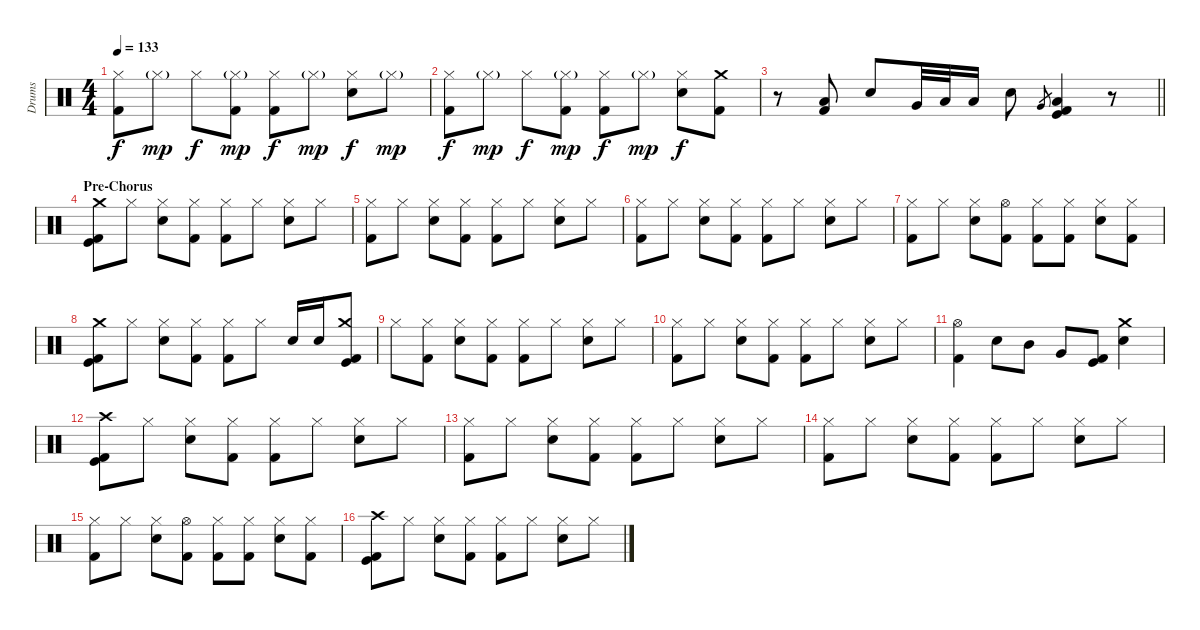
\track ("Drums" "Drums") {instrument percussion}
\staff {score}
\articulation defaults
\ts (4 4)
\tempo 133
\clef neutral
\ks c
("Hi-Hat (closed)" "Kick (hit) 2").8{dy f} "Hi-Hat (closed)"{g}.8{dy mp} "Hi-Hat (closed)".8{dy f} ("Hi-Hat (closed)"{g} "Kick (hit) 2").8{dy mp} ("Hi-Hat (closed)" "Kick (hit) 2").8{dy f} "Hi-Hat (closed)"{g}.8{dy mp} ("Hi-Hat (closed)" "Electric Snare (hit)").8{dy f} "Hi-Hat (closed)"{g}.8{dy mp} |
("Hi-Hat (closed)" "Kick (hit) 2").8{dy f} "Hi-Hat (closed)"{g}.8{dy mp} "Hi-Hat (closed)".8{dy f} ("Hi-Hat (closed)"{g} "Kick (hit) 2").8{dy mp} ("Hi-Hat (closed)" "Kick (hit) 2").8{dy f} "Hi-Hat (closed)"{g}.8{dy mp} ("Hi-Hat (closed)" "Electric Snare (hit)").8{dy f} ("Crash medium (hit)" "Kick (hit) 2").8 |
\barLineRight lightlight
r.8 ("Low Tom (hit)" "Kick (hit) 2").8 "Electric Snare (hit)".8 "Very Low Tom (hit)".32 "Low Tom (hit)".32 "Low Floor Tom (hit)".16 "Electric Snare (hit)".8 "Very Low Tom (hit)".8{gr} ("Low Floor Tom (hit)" "Kick (hit)" "Kick (hit) 2").4{volume 10} r.8 |
\section ("" "Pre-Chorus")
("Crash medium (hit)" "Kick (hit) 2" "Kick (hit)").8 "Hi-Hat (closed)".8 ("Hi-Hat (closed)" "Electric Snare (hit)").8 ("Hi-Hat (closed)" "Kick (hit) 2").8 ("Hi-Hat (closed)" "Kick (hit) 2").8 "Hi-Hat (closed)".8 ("Hi-Hat (closed)" "Electric Snare (hit)").8 "Hi-Hat (closed)".8 |
("Hi-Hat (closed)" "Kick (hit) 2").8 "Hi-Hat (closed)".8 ("Hi-Hat (closed)" "Electric Snare (hit)").8 ("Hi-Hat (closed)" "Kick (hit) 2").8 ("Hi-Hat (closed)" "Kick (hit) 2").8 "Hi-Hat (closed)".8 ("Hi-Hat (closed)" "Electric Snare (hit)").8 "Hi-Hat (closed)".8 |
("Hi-Hat (closed)" "Kick (hit) 2").8 "Hi-Hat (closed)".8 ("Hi-Hat (closed)" "Electric Snare (hit)").8 ("Hi-Hat (closed)" "Kick (hit) 2").8 ("Hi-Hat (closed)" "Kick (hit) 2").8 "Hi-Hat (closed)".8 ("Hi-Hat (closed)" "Electric Snare (hit)").8 "Hi-Hat (closed)".8 |
("Hi-Hat (closed)" "Kick (hit) 2").8 "Hi-Hat (closed)".8 ("Hi-Hat (closed)" "Electric Snare (hit)").8 ("Hi-Hat (open)" "Kick (hit) 2").8 ("Hi-Hat (closed)" "Kick (hit) 2").8 ("Hi-Hat (closed)" "Kick (hit) 2").8 ("Hi-Hat (closed)" "Electric Snare (hit)").8 ("Hi-Hat (closed)" "Kick (hit) 2").8 |
("Crash medium (hit)" "Kick (hit) 2" "Kick (hit)").8 "Hi-Hat (closed)".8 ("Hi-Hat (closed)" "Electric Snare (hit)").8 ("Hi-Hat (closed)" "Kick (hit) 2").8 ("Hi-Hat (closed)" "Kick (hit) 2").8 "Hi-Hat (closed)".8 "Electric Snare (hit)".16 "Electric Snare (hit)".16 ("Crash medium (hit)" "Kick (hit) 2" "Kick (hit)").8 |
"Hi-Hat (closed)".8 ("Hi-Hat (closed)" "Kick (hit) 2").8 ("Hi-Hat (closed)" "Electric Snare (hit)").8 ("Hi-Hat (closed)" "Kick (hit) 2").8 ("Hi-Hat (closed)" "Kick (hit) 2").8 "Hi-Hat (closed)".8 ("Hi-Hat (closed)" "Electric Snare (hit)").8 "Hi-Hat (closed)".8 |
("Hi-Hat (closed)" "Kick (hit) 2").8 "Hi-Hat (closed)".8 ("Hi-Hat (closed)" "Electric Snare (hit)").8 ("Hi-Hat (closed)" "Kick (hit) 2").8 ("Hi-Hat (closed)" "Kick (hit) 2").8 "Hi-Hat (closed)".8 ("Hi-Hat (closed)" "Electric Snare (hit)").8 "Hi-Hat (closed)".8 |
("Hi-Hat (open)" "Kick (hit) 2").4 "Electric Snare (hit)".8 "Mid Tom (hit)".8 "Very Low Tom (hit)".8 ("Kick (hit) 2" "Kick (hit)").8 ("Crash medium (hit)" "Electric Snare (hit)").4 |
("Crash high (hit)" "Kick (hit) 2" "Kick (hit)").8 "Hi-Hat (closed)".8 ("Hi-Hat (closed)" "Electric Snare (hit)").8 ("Hi-Hat (closed)" "Kick (hit) 2").8 ("Hi-Hat (closed)" "Kick (hit) 2").8 "Hi-Hat (closed)".8 ("Hi-Hat (closed)" "Electric Snare (hit)").8 "Hi-Hat (closed)".8 |
("Hi-Hat (closed)" "Kick (hit) 2").8 "Hi-Hat (closed)".8 ("Hi-Hat (closed)" "Electric Snare (hit)").8 ("Hi-Hat (closed)" "Kick (hit) 2").8 ("Hi-Hat (closed)" "Kick (hit) 2").8 "Hi-Hat (closed)".8 ("Hi-Hat (closed)" "Electric Snare (hit)").8 "Hi-Hat (closed)".8 |
("Hi-Hat (closed)" "Kick (hit) 2").8 "Hi-Hat (closed)".8 ("Hi-Hat (closed)" "Electric Snare (hit)").8 ("Hi-Hat (closed)" "Kick (hit) 2").8 ("Hi-Hat (closed)" "Kick (hit) 2").8 "Hi-Hat (closed)".8 ("Hi-Hat (closed)" "Electric Snare (hit)").8 "Hi-Hat (closed)".8 |
("Hi-Hat (closed)" "Kick (hit) 2").8 "Hi-Hat (closed)".8 ("Hi-Hat (closed)" "Electric Snare (hit)").8 ("Hi-Hat (open)" "Kick (hit) 2").8 ("Hi-Hat (closed)" "Kick (hit) 2").8 ("Hi-Hat (closed)" "Kick (hit) 2").8 ("Hi-Hat (closed)" "Electric Snare (hit)").8 ("Hi-Hat (closed)" "Kick (hit) 2").8 |
("Crash high (hit)" "Kick (hit) 2" "Kick (hit)").8 "Hi-Hat (closed)".8 ("Hi-Hat (closed)" "Electric Snare (hit)").8 ("Hi-Hat (closed)" "Kick (hit) 2").8 ("Hi-Hat (closed)" "Kick (hit) 2").8 "Hi-Hat (closed)".8 ("Hi-Hat (closed)" "Electric Snare (hit)").8 "Hi-Hat (closed)".8
